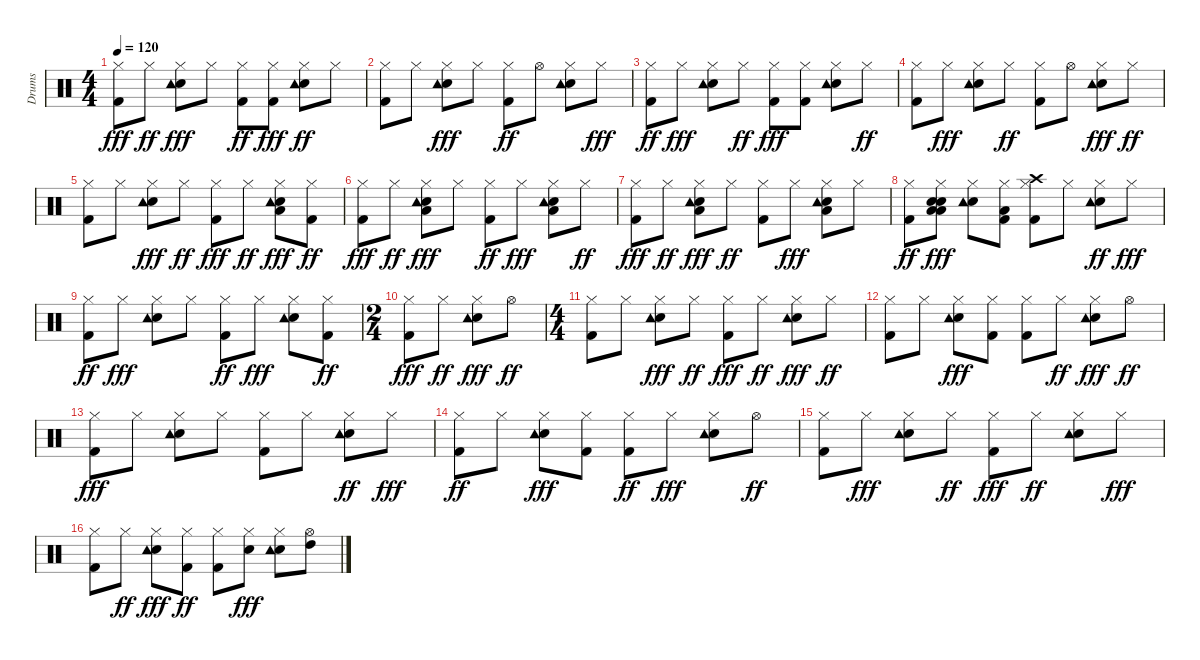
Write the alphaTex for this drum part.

\track ("Drums" "Drums") {instrument percussion}
\staff {score}
\articulation defaults
\ts (4 4)
\tempo 120
\clef neutral
\ks c
("Kick (hit) 2" "Hi-Hat (closed)").8{dy fff} "Hi-Hat (closed)".8{dy ff} ("Hi-Hat (closed)" "Snare (hit) 2" "Tambourine (hit)").8{dy fff} "Hi-Hat (closed)".8 ("Kick (hit) 2" "Hi-Hat (closed)").8{dy ff} ("Kick (hit) 2" "Hi-Hat (closed)").8{dy fff} ("Hi-Hat (closed)" "Snare (hit) 2" "Tambourine (hit)").8{dy ff} "Hi-Hat (closed)".8 |
("Kick (hit) 2" "Hi-Hat (closed)").8 "Hi-Hat (closed)".8 ("Hi-Hat (closed)" "Snare (hit) 2" "Tambourine (hit)").8{dy fff} "Hi-Hat (closed)".8 ("Kick (hit) 2" "Hi-Hat (closed)").8{dy ff} "Hi-Hat (open)".8 ("Hi-Hat (closed)" "Snare (hit) 2" "Tambourine (hit)").8 "Hi-Hat (closed)".8{dy fff} |
("Kick (hit) 2" "Hi-Hat (closed)").8{dy ff} "Hi-Hat (closed)".8{dy fff} ("Hi-Hat (closed)" "Snare (hit) 2" "Tambourine (hit)").8 "Hi-Hat (closed)".8{dy ff} ("Kick (hit) 2" "Hi-Hat (closed)").8{dy fff} ("Kick (hit) 2" "Hi-Hat (closed)").8 ("Hi-Hat (closed)" "Snare (hit) 2" "Tambourine (hit)").8 "Hi-Hat (closed)".8{dy ff} |
("Kick (hit) 2" "Hi-Hat (closed)").8 "Hi-Hat (closed)".8{dy fff} ("Hi-Hat (closed)" "Snare (hit) 2" "Tambourine (hit)").8 "Hi-Hat (closed)".8{dy ff} ("Kick (hit) 2" "Hi-Hat (closed)").8 "Hi-Hat (open)".8 ("Hi-Hat (closed)" "Snare (hit) 2" "Tambourine (hit)").8{dy fff} "Hi-Hat (closed)".8{dy ff} |
("Kick (hit) 2" "Hi-Hat (closed)").8 "Hi-Hat (closed)".8 ("Hi-Hat (closed)" "Snare (hit) 2" "Tambourine (hit)").8{dy fff} "Hi-Hat (closed)".8{dy ff} ("Kick (hit) 2" "Hi-Hat (closed)").8{dy fff} "Hi-Hat (closed)".8{dy ff} ("Hi-Hat (closed)" "Low Floor Tom (hit)" "Snare (hit) 2" "Tambourine (hit)").8{dy fff} ("Kick (hit) 2" "Hi-Hat (closed)").8{dy ff} |
("Kick (hit) 2" "Hi-Hat (closed)").8{dy fff} "Hi-Hat (closed)".8{dy ff} ("Hi-Hat (closed)" "Low Floor Tom (hit)" "Snare (hit) 2" "Tambourine (hit)").8{dy fff} "Hi-Hat (closed)".8 ("Kick (hit) 2" "Hi-Hat (closed)").8{dy ff} "Hi-Hat (closed)".8{dy fff} ("Hi-Hat (closed)" "Low Floor Tom (hit)" "Snare (hit) 2" "Tambourine (hit)").8 "Hi-Hat (closed)".8{dy ff} |
("Kick (hit) 2" "Hi-Hat (closed)").8{dy fff} "Hi-Hat (closed)".8{dy ff} ("Hi-Hat (closed)" "Low Floor Tom (hit)" "Snare (hit) 2" "Tambourine (hit)").8{dy fff} "Hi-Hat (closed)".8{dy ff} ("Kick (hit) 2" "Hi-Hat (closed)").8 "Hi-Hat (closed)".8{dy fff} ("Hi-Hat (closed)" "Low Floor Tom (hit)" "Snare (hit) 2" "Tambourine (hit)").8 "Hi-Hat (closed)".8 |
("Kick (hit) 2" "Hi-Hat (closed)").8{dy ff} ("Hi-Hat (closed)" "Low Floor Tom (hit)" "Snare (hit) 2" "Low Floor Tom (hit)" "Snare (hit) 2").8{dy fff} ("Hi-Hat (closed)" "Snare (hit) 2" "Tambourine (hit)").8 ("Kick (hit) 2" "Hi-Hat (closed)" "Low Floor Tom (hit)").8 ("Kick (hit) 2" "Hi-Hat (closed)" "Crash high (hit)").8 "Hi-Hat (closed)".8 ("Hi-Hat (closed)" "Snare (hit) 2" "Tambourine (hit)").8{dy ff} "Hi-Hat (closed)".8{dy fff} |
("Kick (hit) 2" "Hi-Hat (closed)").8{dy ff} "Hi-Hat (closed)".8{dy fff} ("Hi-Hat (closed)" "Snare (hit) 2" "Tambourine (hit)").8 "Hi-Hat (closed)".8 ("Kick (hit) 2" "Hi-Hat (closed)").8{dy ff} "Hi-Hat (closed)".8{dy fff} ("Hi-Hat (closed)" "Snare (hit) 2" "Tambourine (hit)").8 ("Kick (hit) 2" "Hi-Hat (closed)").8{dy ff} |
\ts (2 4)
("Kick (hit) 2" "Hi-Hat (closed)").8{dy fff} "Hi-Hat (closed)".8{dy ff} ("Hi-Hat (closed)" "Snare (hit) 2" "Tambourine (hit)").8{dy fff} "Hi-Hat (open)".8{dy ff} |
\ts (4 4)
("Kick (hit) 2" "Hi-Hat (closed)").8 "Hi-Hat (closed)".8 ("Hi-Hat (closed)" "Snare (hit) 2" "Tambourine (hit)").8{dy fff} "Hi-Hat (closed)".8{dy ff} ("Kick (hit) 2" "Hi-Hat (closed)").8{dy fff} "Hi-Hat (closed)".8{dy ff} ("Hi-Hat (closed)" "Snare (hit) 2" "Tambourine (hit)").8{dy fff} "Hi-Hat (closed)".8{dy ff} |
("Kick (hit) 2" "Hi-Hat (closed)").8 "Hi-Hat (closed)".8 ("Hi-Hat (closed)" "Snare (hit) 2" "Tambourine (hit)").8{dy fff} ("Kick (hit) 2" "Hi-Hat (closed)").8 ("Kick (hit) 2" "Hi-Hat (closed)").8 "Hi-Hat (closed)".8{dy ff} ("Hi-Hat (closed)" "Snare (hit) 2" "Tambourine (hit)").8{dy fff} "Hi-Hat (open)".8{dy ff} |
("Kick (hit) 2" "Hi-Hat (closed)").8{dy fff} "Hi-Hat (closed)".8 ("Hi-Hat (closed)" "Snare (hit) 2" "Tambourine (hit)").8 "Hi-Hat (closed)".8 ("Kick (hit) 2" "Hi-Hat (closed)").8 "Hi-Hat (closed)".8 ("Hi-Hat (closed)" "Snare (hit) 2" "Tambourine (hit)").8{dy ff} "Hi-Hat (closed)".8{dy fff} |
("Kick (hit) 2" "Hi-Hat (closed)").8{dy ff} "Hi-Hat (closed)".8 ("Hi-Hat (closed)" "Snare (hit) 2" "Tambourine (hit)").8{dy fff} ("Kick (hit) 2" "Hi-Hat (closed)").8 ("Kick (hit) 2" "Hi-Hat (closed)").8{dy ff} "Hi-Hat (closed)".8{dy fff} ("Hi-Hat (closed)" "Snare (hit) 2" "Tambourine (hit)").8 "Hi-Hat (open)".8{dy ff} |
("Kick (hit) 2" "Hi-Hat (closed)").8 "Hi-Hat (closed)".8{dy fff} ("Hi-Hat (closed)" "Snare (hit) 2" "Tambourine (hit)").8 "Hi-Hat (closed)".8{dy ff} ("Kick (hit) 2" "Hi-Hat (closed)").8{dy fff} "Hi-Hat (closed)".8{dy ff} ("Hi-Hat (closed)" "Snare (hit) 2" "Tambourine (hit)").8 "Hi-Hat (closed)".8{dy fff} |
("Kick (hit) 2" "Hi-Hat (closed)").8 "Hi-Hat (closed)".8{dy ff} ("Hi-Hat (closed)" "Snare (hit) 2" "Tambourine (hit)").8{dy fff} ("Kick (hit) 2" "Hi-Hat (closed)").8{dy ff} ("Kick (hit) 2" "Hi-Hat (closed)").8 ("Hi-Hat (closed)" "Snare (hit) 2").8{dy fff} ("Hi-Hat (closed)" "Snare (hit) 2" "Tambourine (hit)").8 ("Hi-Hat (open)" "High Tom (hit)").8
